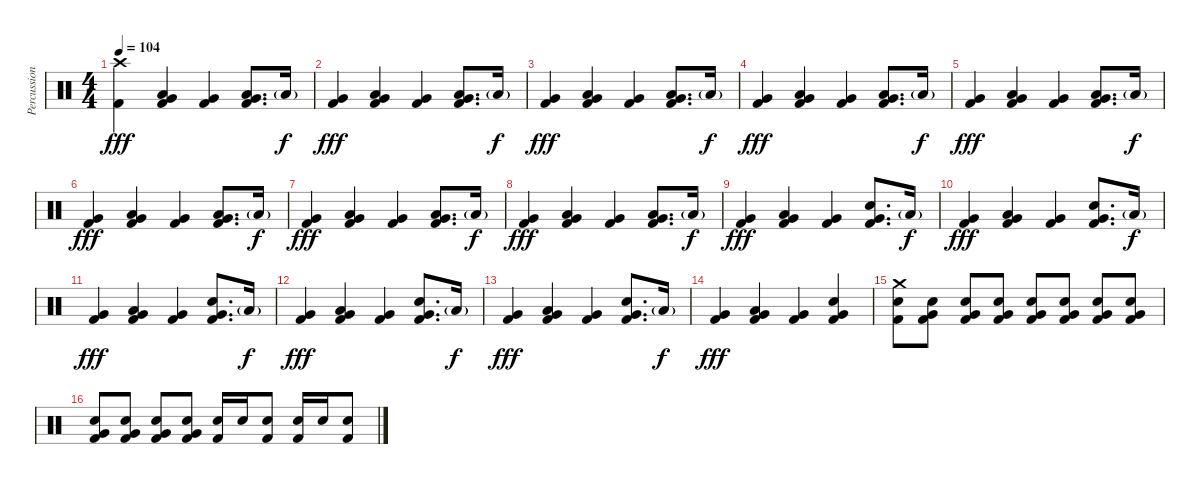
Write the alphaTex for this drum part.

\track ("Percussion" "Percussion") {instrument percussion}
\staff {score}
\articulation defaults
\ts (4 4)
\tempo 104
\clef neutral
\ks c
("Crash high (hit)" "Kick (hit) 2").4{dy fff} ("Very Low Tom (hit)" "Low Tom (hit)" "Kick (hit) 2").4 ("Very Low Tom (hit)" "Kick (hit) 2").4 ("Very Low Tom (hit)" "Low Tom (hit)" "Kick (hit) 2").8{d} "Low Tom (hit)"{g}.16{dy f} |
("Very Low Tom (hit)" "Kick (hit) 2").4{dy fff} ("Very Low Tom (hit)" "Low Tom (hit)" "Kick (hit) 2").4 ("Very Low Tom (hit)" "Kick (hit) 2").4 ("Very Low Tom (hit)" "Low Tom (hit)" "Kick (hit) 2").8{d} "Low Tom (hit)"{g}.16{dy f} |
("Very Low Tom (hit)" "Kick (hit) 2").4{dy fff} ("Very Low Tom (hit)" "Low Tom (hit)" "Kick (hit) 2").4 ("Very Low Tom (hit)" "Kick (hit) 2").4 ("Very Low Tom (hit)" "Low Tom (hit)" "Kick (hit) 2").8{d} "Low Tom (hit)"{g}.16{dy f} |
("Very Low Tom (hit)" "Kick (hit) 2").4{dy fff} ("Very Low Tom (hit)" "Low Tom (hit)" "Kick (hit) 2").4 ("Very Low Tom (hit)" "Kick (hit) 2").4 ("Very Low Tom (hit)" "Low Tom (hit)" "Kick (hit) 2").8{d} "Low Tom (hit)"{g}.16{dy f} |
("Very Low Tom (hit)" "Kick (hit) 2").4{dy fff} ("Very Low Tom (hit)" "Low Tom (hit)" "Kick (hit) 2").4 ("Very Low Tom (hit)" "Kick (hit) 2").4 ("Very Low Tom (hit)" "Low Tom (hit)" "Kick (hit) 2").8{d} "Low Tom (hit)"{g}.16{dy f} |
("Very Low Tom (hit)" "Kick (hit) 2").4{dy fff} ("Very Low Tom (hit)" "Low Tom (hit)" "Kick (hit) 2").4 ("Very Low Tom (hit)" "Kick (hit) 2").4 ("Very Low Tom (hit)" "Low Tom (hit)" "Kick (hit) 2").8{d} "Low Tom (hit)"{g}.16{dy f} |
("Very Low Tom (hit)" "Kick (hit) 2").4{dy fff} ("Very Low Tom (hit)" "Low Tom (hit)" "Kick (hit) 2").4 ("Very Low Tom (hit)" "Kick (hit) 2").4 ("Very Low Tom (hit)" "Low Tom (hit)" "Kick (hit) 2").8{d} "Low Tom (hit)"{g}.16{dy f} |
("Very Low Tom (hit)" "Kick (hit) 2").4{dy fff} ("Very Low Tom (hit)" "Low Tom (hit)" "Kick (hit) 2").4 ("Very Low Tom (hit)" "Kick (hit) 2").4 ("Very Low Tom (hit)" "Low Tom (hit)" "Kick (hit) 2").8{d} "Low Tom (hit)"{g}.16{dy f} |
("Very Low Tom (hit)" "Kick (hit) 2").4{dy fff} ("Very Low Tom (hit)" "Low Tom (hit)" "Kick (hit) 2").4 ("Very Low Tom (hit)" "Kick (hit) 2").4 ("Very Low Tom (hit)" "Electric Snare (hit)" "Kick (hit) 2").8{d} "Low Tom (hit)"{g}.16{dy f} |
("Very Low Tom (hit)" "Kick (hit) 2").4{dy fff} ("Very Low Tom (hit)" "Low Tom (hit)" "Kick (hit) 2").4 ("Very Low Tom (hit)" "Kick (hit) 2").4 ("Very Low Tom (hit)" "Electric Snare (hit)" "Kick (hit) 2").8{d} "Low Tom (hit)"{g}.16{dy f} |
("Very Low Tom (hit)" "Kick (hit) 2").4{dy fff} ("Very Low Tom (hit)" "Low Tom (hit)" "Kick (hit) 2").4 ("Very Low Tom (hit)" "Kick (hit) 2").4 ("Very Low Tom (hit)" "Electric Snare (hit)" "Kick (hit) 2").8{d} "Low Tom (hit)"{g}.16{dy f} |
("Very Low Tom (hit)" "Kick (hit) 2").4{dy fff} ("Very Low Tom (hit)" "Low Tom (hit)" "Kick (hit) 2").4 ("Very Low Tom (hit)" "Kick (hit) 2").4 ("Very Low Tom (hit)" "Electric Snare (hit)" "Kick (hit) 2").8{d} "Low Tom (hit)"{g}.16{dy f} |
("Very Low Tom (hit)" "Kick (hit) 2").4{dy fff} ("Very Low Tom (hit)" "Low Tom (hit)" "Kick (hit) 2").4 ("Very Low Tom (hit)" "Kick (hit) 2").4 ("Very Low Tom (hit)" "Electric Snare (hit)" "Kick (hit) 2").8{d} "Low Tom (hit)"{g}.16{dy f} |
("Very Low Tom (hit)" "Kick (hit) 2").4{dy fff} ("Very Low Tom (hit)" "Low Tom (hit)" "Kick (hit) 2").4 ("Very Low Tom (hit)" "Kick (hit) 2").4 ("Very Low Tom (hit)" "Electric Snare (hit)" "Kick (hit) 2").4 |
("Crash medium (hit)" "Electric Snare (hit)" "Kick (hit) 2").8 ("Very Low Tom (hit)" "Electric Snare (hit)" "Kick (hit) 2").8 ("Very Low Tom (hit)" "Electric Snare (hit)" "Kick (hit) 2").8 ("Very Low Tom (hit)" "Electric Snare (hit)" "Kick (hit) 2").8 ("Very Low Tom (hit)" "Electric Snare (hit)" "Kick (hit) 2").8 ("Very Low Tom (hit)" "Electric Snare (hit)" "Kick (hit) 2").8 ("Very Low Tom (hit)" "Electric Snare (hit)" "Kick (hit) 2").8 ("Very Low Tom (hit)" "Electric Snare (hit)" "Kick (hit) 2").8 |
("Very Low Tom (hit)" "Electric Snare (hit)" "Kick (hit) 2").8 ("Very Low Tom (hit)" "Electric Snare (hit)" "Kick (hit) 2").8 ("Very Low Tom (hit)" "Electric Snare (hit)" "Kick (hit) 2").8 ("Very Low Tom (hit)" "Electric Snare (hit)" "Kick (hit) 2").8 ("Electric Snare (hit)" "Kick (hit) 2").16 "Electric Snare (hit)".16 ("Electric Snare (hit)" "Kick (hit) 2").8 ("Electric Snare (hit)" "Kick (hit) 2").16 "Electric Snare (hit)".16 ("Electric Snare (hit)" "Kick (hit) 2").8
